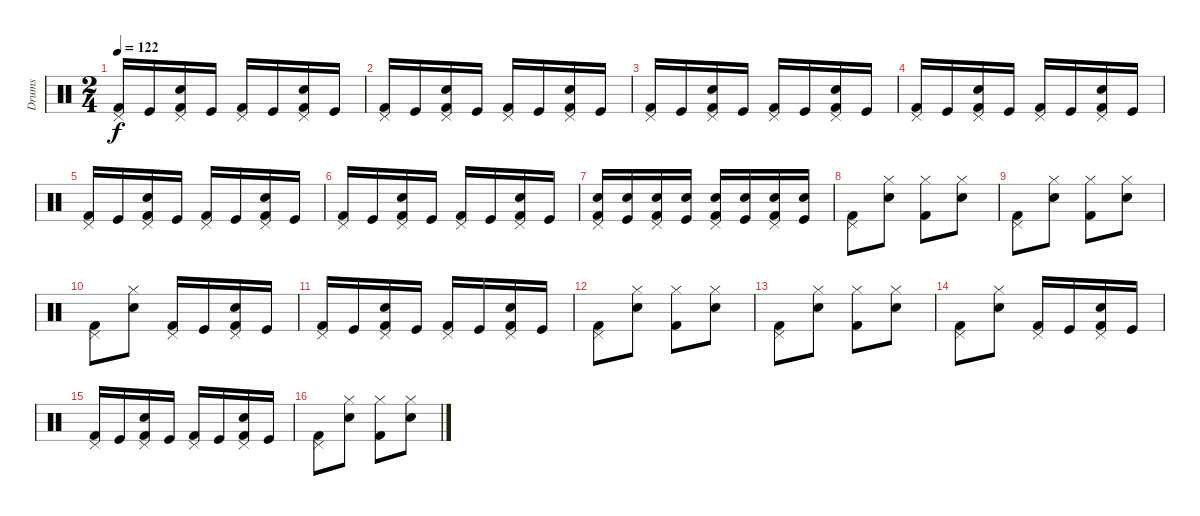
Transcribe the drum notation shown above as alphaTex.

\track ("Drums" "Drums") {instrument percussion}
\staff {score}
\articulation defaults
\ts (2 4)
\tempo 122
\clef neutral
\ks c
("Pedal Hi-Hat (hit)" "Kick (hit) 2").16{dy f} "Kick (hit)".16 ("Pedal Hi-Hat (hit)" "Snare (hit) 2" "Kick (hit) 2").16 "Kick (hit)".16 ("Pedal Hi-Hat (hit)" "Kick (hit) 2").16 "Kick (hit)".16 ("Pedal Hi-Hat (hit)" "Snare (hit) 2" "Kick (hit) 2").16 "Kick (hit)".16 |
("Pedal Hi-Hat (hit)" "Kick (hit) 2").16 "Kick (hit)".16 ("Pedal Hi-Hat (hit)" "Snare (hit) 2" "Kick (hit) 2").16 "Kick (hit)".16 ("Pedal Hi-Hat (hit)" "Kick (hit) 2").16 "Kick (hit)".16 ("Pedal Hi-Hat (hit)" "Snare (hit) 2" "Kick (hit) 2").16 "Kick (hit)".16 |
("Pedal Hi-Hat (hit)" "Kick (hit) 2").16 "Kick (hit)".16 ("Pedal Hi-Hat (hit)" "Snare (hit) 2" "Kick (hit) 2").16 "Kick (hit)".16 ("Pedal Hi-Hat (hit)" "Kick (hit) 2").16 "Kick (hit)".16 ("Pedal Hi-Hat (hit)" "Snare (hit) 2" "Kick (hit) 2").16 "Kick (hit)".16 |
("Pedal Hi-Hat (hit)" "Kick (hit) 2").16 "Kick (hit)".16 ("Pedal Hi-Hat (hit)" "Snare (hit) 2" "Kick (hit) 2").16 "Kick (hit)".16 ("Pedal Hi-Hat (hit)" "Kick (hit) 2").16 "Kick (hit)".16 ("Pedal Hi-Hat (hit)" "Snare (hit) 2" "Kick (hit) 2").16 "Kick (hit)".16 |
("Pedal Hi-Hat (hit)" "Kick (hit) 2").16 "Kick (hit)".16 ("Pedal Hi-Hat (hit)" "Snare (hit) 2" "Kick (hit) 2").16 "Kick (hit)".16 ("Pedal Hi-Hat (hit)" "Kick (hit) 2").16 "Kick (hit)".16 ("Pedal Hi-Hat (hit)" "Snare (hit) 2" "Kick (hit) 2").16 "Kick (hit)".16 |
("Pedal Hi-Hat (hit)" "Kick (hit) 2").16 "Kick (hit)".16 ("Pedal Hi-Hat (hit)" "Snare (hit) 2" "Kick (hit) 2").16 "Kick (hit)".16 ("Pedal Hi-Hat (hit)" "Kick (hit) 2").16 "Kick (hit)".16 ("Pedal Hi-Hat (hit)" "Snare (hit) 2" "Kick (hit) 2").16 "Kick (hit)".16 |
("Pedal Hi-Hat (hit)" "Snare (hit) 2" "Kick (hit) 2").16 ("Snare (hit) 2" "Kick (hit)").16 ("Pedal Hi-Hat (hit)" "Snare (hit) 2" "Kick (hit) 2").16 ("Snare (hit) 2" "Kick (hit)").16 ("Pedal Hi-Hat (hit)" "Snare (hit) 2" "Kick (hit) 2").16 ("Snare (hit) 2" "Kick (hit)").16 ("Pedal Hi-Hat (hit)" "Snare (hit) 2" "Kick (hit) 2").16 ("Snare (hit) 2" "Kick (hit)").16 |
("Pedal Hi-Hat (hit)" "Kick (hit) 2").8 ("Hi-Hat (closed)" "Snare (hit) 2").8 ("Hi-Hat (closed)" "Kick (hit) 2").8 ("Hi-Hat (closed)" "Snare (hit) 2").8 |
("Pedal Hi-Hat (hit)" "Kick (hit) 2").8 ("Hi-Hat (closed)" "Snare (hit) 2").8 ("Hi-Hat (closed)" "Kick (hit) 2").8 ("Hi-Hat (closed)" "Snare (hit) 2").8 |
("Pedal Hi-Hat (hit)" "Kick (hit) 2").8 ("Hi-Hat (closed)" "Snare (hit) 2").8 ("Pedal Hi-Hat (hit)" "Kick (hit) 2").16 "Kick (hit)".16 ("Pedal Hi-Hat (hit)" "Snare (hit) 2" "Kick (hit) 2").16 "Kick (hit)".16 |
("Pedal Hi-Hat (hit)" "Kick (hit) 2").16 "Kick (hit)".16 ("Pedal Hi-Hat (hit)" "Snare (hit) 2" "Kick (hit) 2").16 "Kick (hit)".16 ("Pedal Hi-Hat (hit)" "Kick (hit) 2").16 "Kick (hit)".16 ("Pedal Hi-Hat (hit)" "Snare (hit) 2" "Kick (hit) 2").16 "Kick (hit)".16 |
("Pedal Hi-Hat (hit)" "Kick (hit) 2").8 ("Hi-Hat (closed)" "Snare (hit) 2").8 ("Hi-Hat (closed)" "Kick (hit) 2").8 ("Hi-Hat (closed)" "Snare (hit) 2").8 |
("Pedal Hi-Hat (hit)" "Kick (hit) 2").8 ("Hi-Hat (closed)" "Snare (hit) 2").8 ("Hi-Hat (closed)" "Kick (hit) 2").8 ("Hi-Hat (closed)" "Snare (hit) 2").8 |
("Pedal Hi-Hat (hit)" "Kick (hit) 2").8 ("Hi-Hat (closed)" "Snare (hit) 2").8 ("Pedal Hi-Hat (hit)" "Kick (hit) 2").16 "Kick (hit)".16 ("Pedal Hi-Hat (hit)" "Snare (hit) 2" "Kick (hit) 2").16 "Kick (hit)".16 |
("Pedal Hi-Hat (hit)" "Kick (hit) 2").16 "Kick (hit)".16 ("Pedal Hi-Hat (hit)" "Snare (hit) 2" "Kick (hit) 2").16 "Kick (hit)".16 ("Pedal Hi-Hat (hit)" "Kick (hit) 2").16 "Kick (hit)".16 ("Pedal Hi-Hat (hit)" "Snare (hit) 2" "Kick (hit) 2").16 "Kick (hit)".16 |
("Pedal Hi-Hat (hit)" "Kick (hit) 2").8 ("Hi-Hat (closed)" "Snare (hit) 2").8 ("Hi-Hat (closed)" "Kick (hit) 2").8 ("Hi-Hat (closed)" "Snare (hit) 2").8
